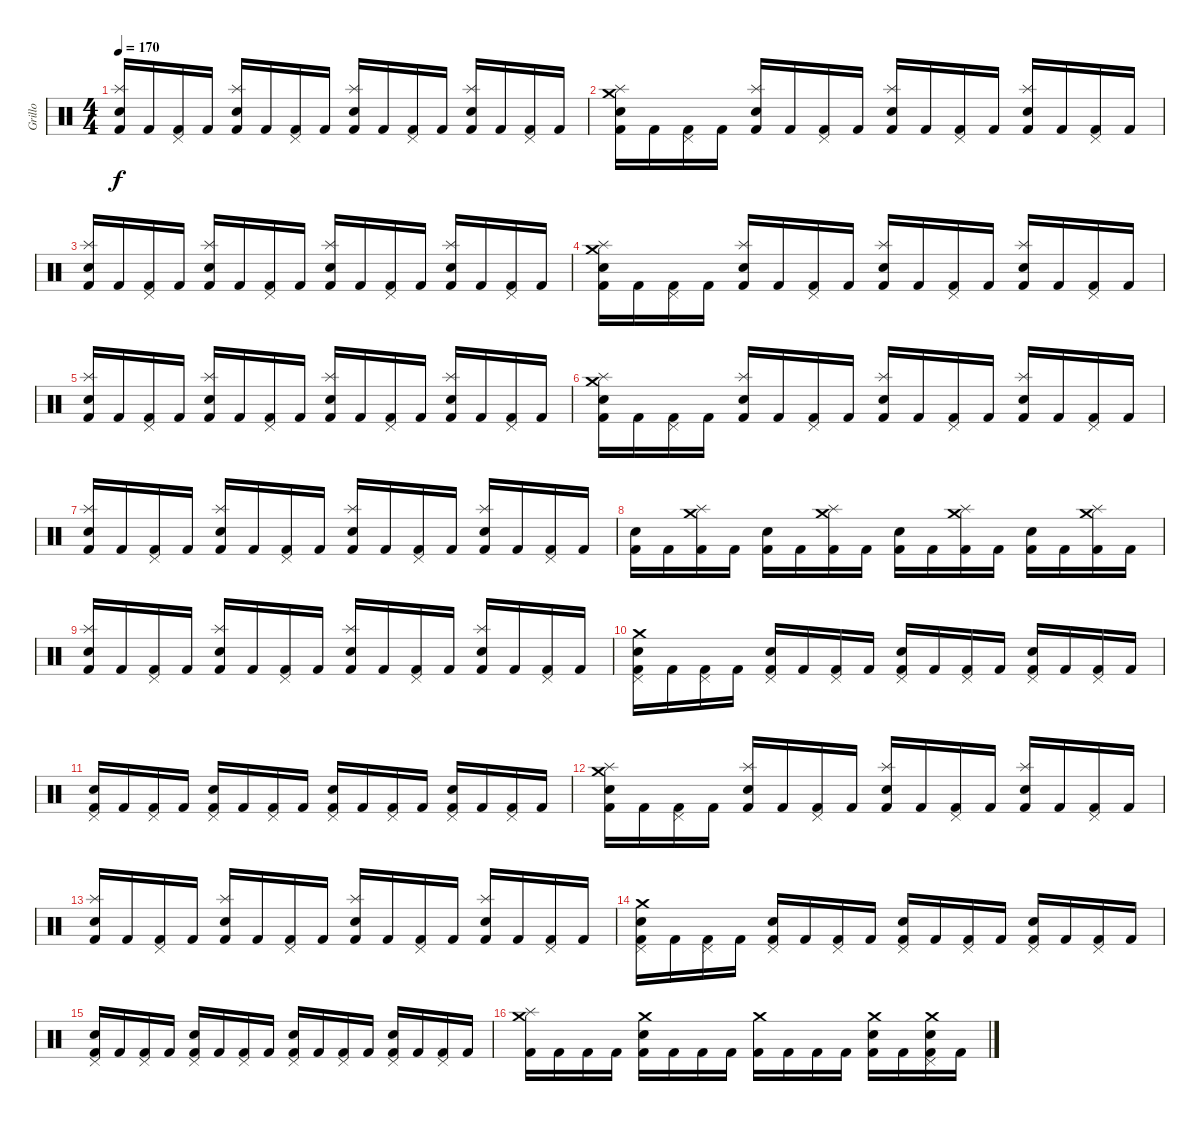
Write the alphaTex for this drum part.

\track ("Grillo" "Grillo") {instrument percussion}
\staff {score}
\articulation defaults
\ts (4 4)
\tempo 170
\clef neutral
\ks c
("Electric Snare (hit)" "Splash (hit)" "Kick (hit) 2").16{dy f} "Kick (hit) 2".16 ("Pedal Hi-Hat (hit)" "Kick (hit) 2").16 "Kick (hit) 2".16 ("Electric Snare (hit)" "Splash (hit)" "Kick (hit) 2").16 "Kick (hit) 2".16 ("Pedal Hi-Hat (hit)" "Kick (hit) 2").16 "Kick (hit) 2".16 ("Electric Snare (hit)" "Splash (hit)" "Kick (hit) 2").16 "Kick (hit) 2".16 ("Pedal Hi-Hat (hit)" "Kick (hit) 2").16 "Kick (hit) 2".16 ("Electric Snare (hit)" "Splash (hit)" "Kick (hit) 2").16 "Kick (hit) 2".16 ("Pedal Hi-Hat (hit)" "Kick (hit) 2").16 "Kick (hit) 2".16 |
("Electric Snare (hit)" "Splash (hit)" "Crash medium (hit)" "Kick (hit) 2").16 "Kick (hit) 2".16 ("Pedal Hi-Hat (hit)" "Kick (hit) 2").16 "Kick (hit) 2".16 ("Electric Snare (hit)" "Splash (hit)" "Kick (hit) 2").16 "Kick (hit) 2".16 ("Pedal Hi-Hat (hit)" "Kick (hit) 2").16 "Kick (hit) 2".16 ("Electric Snare (hit)" "Splash (hit)" "Kick (hit) 2").16 "Kick (hit) 2".16 ("Pedal Hi-Hat (hit)" "Kick (hit) 2").16 "Kick (hit) 2".16 ("Electric Snare (hit)" "Splash (hit)" "Kick (hit) 2").16 "Kick (hit) 2".16 ("Pedal Hi-Hat (hit)" "Kick (hit) 2").16 "Kick (hit) 2".16 |
("Electric Snare (hit)" "Splash (hit)" "Kick (hit) 2").16 "Kick (hit) 2".16 ("Pedal Hi-Hat (hit)" "Kick (hit) 2").16 "Kick (hit) 2".16 ("Electric Snare (hit)" "Splash (hit)" "Kick (hit) 2").16 "Kick (hit) 2".16 ("Pedal Hi-Hat (hit)" "Kick (hit) 2").16 "Kick (hit) 2".16 ("Electric Snare (hit)" "Splash (hit)" "Kick (hit) 2").16 "Kick (hit) 2".16 ("Pedal Hi-Hat (hit)" "Kick (hit) 2").16 "Kick (hit) 2".16 ("Electric Snare (hit)" "Splash (hit)" "Kick (hit) 2").16 "Kick (hit) 2".16 ("Pedal Hi-Hat (hit)" "Kick (hit) 2").16 "Kick (hit) 2".16 |
("Electric Snare (hit)" "Splash (hit)" "Crash medium (hit)" "Kick (hit) 2").16 "Kick (hit) 2".16 ("Pedal Hi-Hat (hit)" "Kick (hit) 2").16 "Kick (hit) 2".16 ("Electric Snare (hit)" "Splash (hit)" "Kick (hit) 2").16 "Kick (hit) 2".16 ("Pedal Hi-Hat (hit)" "Kick (hit) 2").16 "Kick (hit) 2".16 ("Electric Snare (hit)" "Splash (hit)" "Kick (hit) 2").16 "Kick (hit) 2".16 ("Pedal Hi-Hat (hit)" "Kick (hit) 2").16 "Kick (hit) 2".16 ("Electric Snare (hit)" "Splash (hit)" "Kick (hit) 2").16 "Kick (hit) 2".16 ("Pedal Hi-Hat (hit)" "Kick (hit) 2").16 "Kick (hit) 2".16 |
("Electric Snare (hit)" "Splash (hit)" "Kick (hit) 2").16 "Kick (hit) 2".16 ("Pedal Hi-Hat (hit)" "Kick (hit) 2").16 "Kick (hit) 2".16 ("Electric Snare (hit)" "Splash (hit)" "Kick (hit) 2").16 "Kick (hit) 2".16 ("Pedal Hi-Hat (hit)" "Kick (hit) 2").16 "Kick (hit) 2".16 ("Electric Snare (hit)" "Splash (hit)" "Kick (hit) 2").16 "Kick (hit) 2".16 ("Pedal Hi-Hat (hit)" "Kick (hit) 2").16 "Kick (hit) 2".16 ("Electric Snare (hit)" "Splash (hit)" "Kick (hit) 2").16 "Kick (hit) 2".16 ("Pedal Hi-Hat (hit)" "Kick (hit) 2").16 "Kick (hit) 2".16 |
("Electric Snare (hit)" "Splash (hit)" "Crash medium (hit)" "Kick (hit) 2").16 "Kick (hit) 2".16 ("Pedal Hi-Hat (hit)" "Kick (hit) 2").16 "Kick (hit) 2".16 ("Electric Snare (hit)" "Splash (hit)" "Kick (hit) 2").16 "Kick (hit) 2".16 ("Pedal Hi-Hat (hit)" "Kick (hit) 2").16 "Kick (hit) 2".16 ("Electric Snare (hit)" "Splash (hit)" "Kick (hit) 2").16 "Kick (hit) 2".16 ("Pedal Hi-Hat (hit)" "Kick (hit) 2").16 "Kick (hit) 2".16 ("Electric Snare (hit)" "Splash (hit)" "Kick (hit) 2").16 "Kick (hit) 2".16 ("Pedal Hi-Hat (hit)" "Kick (hit) 2").16 "Kick (hit) 2".16 |
("Electric Snare (hit)" "Splash (hit)" "Kick (hit) 2").16 "Kick (hit) 2".16 ("Pedal Hi-Hat (hit)" "Kick (hit) 2").16 "Kick (hit) 2".16 ("Electric Snare (hit)" "Splash (hit)" "Kick (hit) 2").16 "Kick (hit) 2".16 ("Pedal Hi-Hat (hit)" "Kick (hit) 2").16 "Kick (hit) 2".16 ("Electric Snare (hit)" "Splash (hit)" "Kick (hit) 2").16 "Kick (hit) 2".16 ("Pedal Hi-Hat (hit)" "Kick (hit) 2").16 "Kick (hit) 2".16 ("Electric Snare (hit)" "Splash (hit)" "Kick (hit) 2").16 "Kick (hit) 2".16 ("Pedal Hi-Hat (hit)" "Kick (hit) 2").16 "Kick (hit) 2".16 |
("Electric Snare (hit)" "Kick (hit) 2").16 "Kick (hit) 2".16 ("Crash medium (hit)" "Splash (hit)" "Kick (hit) 2").16 "Kick (hit) 2".16 ("Electric Snare (hit)" "Kick (hit) 2").16 "Kick (hit) 2".16 ("Splash (hit)" "Crash medium (hit)" "Kick (hit) 2").16 "Kick (hit) 2".16 ("Electric Snare (hit)" "Kick (hit) 2").16 "Kick (hit) 2".16 ("Splash (hit)" "Crash medium (hit)" "Kick (hit) 2").16 "Kick (hit) 2".16 ("Electric Snare (hit)" "Kick (hit) 2").16 "Kick (hit) 2".16 ("Crash medium (hit)" "Splash (hit)" "Kick (hit) 2").16 "Kick (hit) 2".16 |
("Electric Snare (hit)" "Splash (hit)" "Kick (hit) 2").16 "Kick (hit) 2".16 ("Pedal Hi-Hat (hit)" "Kick (hit) 2").16 "Kick (hit) 2".16 ("Electric Snare (hit)" "Splash (hit)" "Kick (hit) 2").16 "Kick (hit) 2".16 ("Pedal Hi-Hat (hit)" "Kick (hit) 2").16 "Kick (hit) 2".16 ("Electric Snare (hit)" "Splash (hit)" "Kick (hit) 2").16 "Kick (hit) 2".16 ("Pedal Hi-Hat (hit)" "Kick (hit) 2").16 "Kick (hit) 2".16 ("Electric Snare (hit)" "Splash (hit)" "Kick (hit) 2").16 "Kick (hit) 2".16 ("Pedal Hi-Hat (hit)" "Kick (hit) 2").16 "Kick (hit) 2".16 |
("Electric Snare (hit)" "Pedal Hi-Hat (hit)" "Crash medium (hit)" "Kick (hit) 2").16 "Kick (hit) 2".16 ("Pedal Hi-Hat (hit)" "Kick (hit) 2").16 "Kick (hit) 2".16 ("Electric Snare (hit)" "Pedal Hi-Hat (hit)" "Kick (hit) 2").16 "Kick (hit) 2".16 ("Pedal Hi-Hat (hit)" "Kick (hit) 2").16 "Kick (hit) 2".16 ("Electric Snare (hit)" "Pedal Hi-Hat (hit)" "Kick (hit) 2").16 "Kick (hit) 2".16 ("Pedal Hi-Hat (hit)" "Kick (hit) 2").16 "Kick (hit) 2".16 ("Electric Snare (hit)" "Pedal Hi-Hat (hit)" "Kick (hit) 2").16 "Kick (hit) 2".16 ("Pedal Hi-Hat (hit)" "Kick (hit) 2").16 "Kick (hit) 2".16 |
("Electric Snare (hit)" "Pedal Hi-Hat (hit)" "Kick (hit) 2").16 "Kick (hit) 2".16 ("Pedal Hi-Hat (hit)" "Kick (hit) 2").16 "Kick (hit) 2".16 ("Electric Snare (hit)" "Pedal Hi-Hat (hit)" "Kick (hit) 2").16 "Kick (hit) 2".16 ("Pedal Hi-Hat (hit)" "Kick (hit) 2").16 "Kick (hit) 2".16 ("Electric Snare (hit)" "Pedal Hi-Hat (hit)" "Kick (hit) 2").16 "Kick (hit) 2".16 ("Pedal Hi-Hat (hit)" "Kick (hit) 2").16 "Kick (hit) 2".16 ("Electric Snare (hit)" "Pedal Hi-Hat (hit)" "Kick (hit) 2").16 "Kick (hit) 2".16 ("Pedal Hi-Hat (hit)" "Kick (hit) 2").16 "Kick (hit) 2".16 |
("Electric Snare (hit)" "Splash (hit)" "Crash medium (hit)" "Kick (hit) 2").16 "Kick (hit) 2".16 ("Pedal Hi-Hat (hit)" "Kick (hit) 2").16 "Kick (hit) 2".16 ("Electric Snare (hit)" "Splash (hit)" "Kick (hit) 2").16 "Kick (hit) 2".16 ("Pedal Hi-Hat (hit)" "Kick (hit) 2").16 "Kick (hit) 2".16 ("Electric Snare (hit)" "Splash (hit)" "Kick (hit) 2").16 "Kick (hit) 2".16 ("Pedal Hi-Hat (hit)" "Kick (hit) 2").16 "Kick (hit) 2".16 ("Electric Snare (hit)" "Splash (hit)" "Kick (hit) 2").16 "Kick (hit) 2".16 ("Pedal Hi-Hat (hit)" "Kick (hit) 2").16 "Kick (hit) 2".16 |
("Electric Snare (hit)" "Splash (hit)" "Kick (hit) 2").16 "Kick (hit) 2".16 ("Pedal Hi-Hat (hit)" "Kick (hit) 2").16 "Kick (hit) 2".16 ("Electric Snare (hit)" "Splash (hit)" "Kick (hit) 2").16 "Kick (hit) 2".16 ("Pedal Hi-Hat (hit)" "Kick (hit) 2").16 "Kick (hit) 2".16 ("Electric Snare (hit)" "Splash (hit)" "Kick (hit) 2").16 "Kick (hit) 2".16 ("Pedal Hi-Hat (hit)" "Kick (hit) 2").16 "Kick (hit) 2".16 ("Electric Snare (hit)" "Splash (hit)" "Kick (hit) 2").16 "Kick (hit) 2".16 ("Pedal Hi-Hat (hit)" "Kick (hit) 2").16 "Kick (hit) 2".16 |
("Electric Snare (hit)" "Pedal Hi-Hat (hit)" "Crash medium (hit)" "Kick (hit) 2").16 "Kick (hit) 2".16 ("Pedal Hi-Hat (hit)" "Kick (hit) 2").16 "Kick (hit) 2".16 ("Electric Snare (hit)" "Pedal Hi-Hat (hit)" "Kick (hit) 2").16 "Kick (hit) 2".16 ("Pedal Hi-Hat (hit)" "Kick (hit) 2").16 "Kick (hit) 2".16 ("Electric Snare (hit)" "Pedal Hi-Hat (hit)" "Kick (hit) 2").16 "Kick (hit) 2".16 ("Pedal Hi-Hat (hit)" "Kick (hit) 2").16 "Kick (hit) 2".16 ("Electric Snare (hit)" "Pedal Hi-Hat (hit)" "Kick (hit) 2").16 "Kick (hit) 2".16 ("Pedal Hi-Hat (hit)" "Kick (hit) 2").16 "Kick (hit) 2".16 |
("Electric Snare (hit)" "Pedal Hi-Hat (hit)" "Kick (hit) 2").16 "Kick (hit) 2".16 ("Pedal Hi-Hat (hit)" "Kick (hit) 2").16 "Kick (hit) 2".16 ("Electric Snare (hit)" "Pedal Hi-Hat (hit)" "Kick (hit) 2").16 "Kick (hit) 2".16 ("Pedal Hi-Hat (hit)" "Kick (hit) 2").16 "Kick (hit) 2".16 ("Electric Snare (hit)" "Pedal Hi-Hat (hit)" "Kick (hit) 2").16 "Kick (hit) 2".16 ("Pedal Hi-Hat (hit)" "Kick (hit) 2").16 "Kick (hit) 2".16 ("Electric Snare (hit)" "Pedal Hi-Hat (hit)" "Kick (hit) 2").16 "Kick (hit) 2".16 ("Pedal Hi-Hat (hit)" "Kick (hit) 2").16 "Kick (hit) 2".16 |
("Splash (hit)" "Crash medium (hit)" "Kick (hit) 2").16 "Kick (hit) 2".16 "Kick (hit) 2".16 "Kick (hit) 2".16 ("Electric Snare (hit)" "Crash medium (hit)" "Kick (hit) 2").16 "Kick (hit) 2".16 "Kick (hit) 2".16 "Kick (hit) 2".16 ("Crash medium (hit)" "Kick (hit) 2").16 "Kick (hit) 2".16 "Kick (hit) 2".16 "Kick (hit) 2".16 ("Electric Snare (hit)" "Crash medium (hit)" "Kick (hit) 2").16 "Kick (hit) 2".16 ("Electric Snare (hit)" "Pedal Hi-Hat (hit)" "Crash medium (hit)" "Kick (hit) 2").16 "Kick (hit) 2".16
